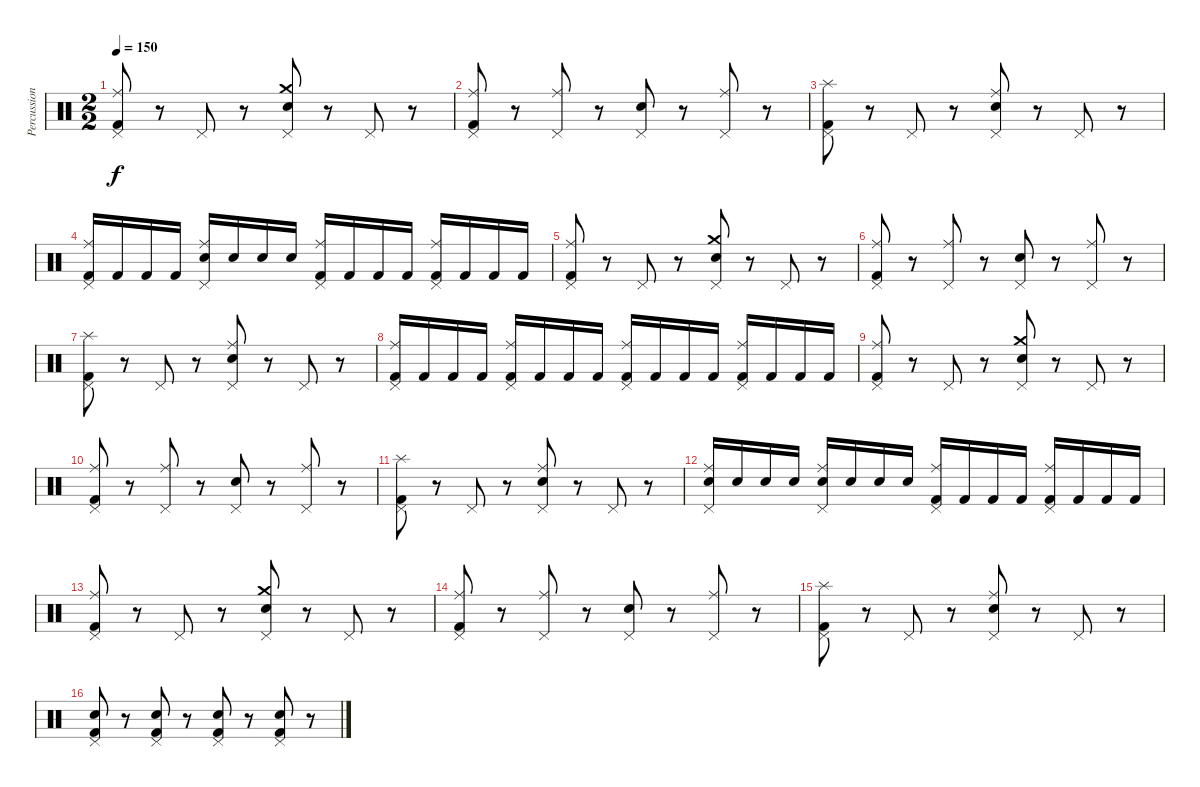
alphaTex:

\track ("Percussion" "Percussion") {instrument percussion}
\staff {score}
\articulation defaults
\ts (2 2)
\tempo 150
\clef neutral
\ks c
("Pedal Hi-Hat (hit)" "Ride (middle)" "Kick (hit) 2").8{dy f} r.8 "Pedal Hi-Hat (hit)".8 r.8 ("Pedal Hi-Hat (hit)" "Crash medium (hit)" "Snare (hit) 2").8 r.8 "Pedal Hi-Hat (hit)".8 r.8 |
("Pedal Hi-Hat (hit)" "Ride (middle)" "Kick (hit) 2").8 r.8 ("Pedal Hi-Hat (hit)" "Ride (middle)").8 r.8 ("Pedal Hi-Hat (hit)" "Snare (hit) 2").8 r.8 ("Pedal Hi-Hat (hit)" "Ride (middle)").8 r.8 |
("Pedal Hi-Hat (hit)" "Splash (hit)" "Kick (hit) 2").8 r.8 "Pedal Hi-Hat (hit)".8 r.8 ("Pedal Hi-Hat (hit)" "Ride (middle)" "Snare (hit) 2").8 r.8 "Pedal Hi-Hat (hit)".8 r.8 |
("Pedal Hi-Hat (hit)" "Ride (middle)" "Kick (hit) 2").16 "Kick (hit) 2".16 "Kick (hit) 2".16 "Kick (hit) 2".16 ("Pedal Hi-Hat (hit)" "Ride (middle)" "Snare (hit) 2").16 "Snare (hit) 2".16 "Snare (hit) 2".16 "Snare (hit) 2".16 ("Pedal Hi-Hat (hit)" "Ride (middle)" "Kick (hit) 2").16 "Kick (hit) 2".16 "Kick (hit) 2".16 "Kick (hit) 2".16 ("Pedal Hi-Hat (hit)" "Ride (middle)" "Kick (hit) 2").16 "Kick (hit) 2".16 "Kick (hit) 2".16 "Kick (hit) 2".16 |
("Pedal Hi-Hat (hit)" "Ride (middle)" "Kick (hit) 2").8 r.8 "Pedal Hi-Hat (hit)".8 r.8 ("Pedal Hi-Hat (hit)" "Crash medium (hit)" "Snare (hit) 2").8 r.8 "Pedal Hi-Hat (hit)".8 r.8 |
("Pedal Hi-Hat (hit)" "Ride (middle)" "Kick (hit) 2").8 r.8 ("Pedal Hi-Hat (hit)" "Ride (middle)").8 r.8 ("Pedal Hi-Hat (hit)" "Snare (hit) 2").8 r.8 ("Pedal Hi-Hat (hit)" "Ride (middle)").8 r.8 |
("Pedal Hi-Hat (hit)" "Splash (hit)" "Kick (hit) 2").8 r.8 "Pedal Hi-Hat (hit)".8 r.8 ("Pedal Hi-Hat (hit)" "Ride (middle)" "Snare (hit) 2").8 r.8 "Pedal Hi-Hat (hit)".8 r.8 |
("Pedal Hi-Hat (hit)" "Ride (middle)" "Kick (hit) 2").16 "Kick (hit) 2".16 "Kick (hit) 2".16 "Kick (hit) 2".16 ("Pedal Hi-Hat (hit)" "Ride (middle)" "Kick (hit) 2").16 "Kick (hit) 2".16 "Kick (hit) 2".16 "Kick (hit) 2".16 ("Pedal Hi-Hat (hit)" "Ride (middle)" "Kick (hit) 2").16 "Kick (hit) 2".16 "Kick (hit) 2".16 "Kick (hit) 2".16 ("Pedal Hi-Hat (hit)" "Ride (middle)" "Kick (hit) 2").16 "Kick (hit) 2".16 "Kick (hit) 2".16 "Kick (hit) 2".16 |
("Pedal Hi-Hat (hit)" "Ride (middle)" "Kick (hit) 2").8 r.8 "Pedal Hi-Hat (hit)".8 r.8 ("Pedal Hi-Hat (hit)" "Crash medium (hit)" "Snare (hit) 2").8 r.8 "Pedal Hi-Hat (hit)".8 r.8 |
("Pedal Hi-Hat (hit)" "Ride (middle)" "Kick (hit) 2").8 r.8 ("Pedal Hi-Hat (hit)" "Ride (middle)").8 r.8 ("Pedal Hi-Hat (hit)" "Snare (hit) 2").8 r.8 ("Pedal Hi-Hat (hit)" "Ride (middle)").8 r.8 |
("Pedal Hi-Hat (hit)" "Splash (hit)" "Kick (hit) 2").8 r.8 "Pedal Hi-Hat (hit)".8 r.8 ("Pedal Hi-Hat (hit)" "Ride (middle)" "Snare (hit) 2").8 r.8 "Pedal Hi-Hat (hit)".8 r.8 |
("Pedal Hi-Hat (hit)" "Ride (middle)" "Snare (hit) 2").16 "Snare (hit) 2".16 "Snare (hit) 2".16 "Snare (hit) 2".16 ("Pedal Hi-Hat (hit)" "Ride (middle)" "Snare (hit) 2").16 "Snare (hit) 2".16 "Snare (hit) 2".16 "Snare (hit) 2".16 ("Pedal Hi-Hat (hit)" "Ride (middle)" "Kick (hit) 2").16 "Kick (hit) 2".16 "Kick (hit) 2".16 "Kick (hit) 2".16 ("Pedal Hi-Hat (hit)" "Ride (middle)" "Kick (hit) 2").16 "Kick (hit) 2".16 "Kick (hit) 2".16 "Kick (hit) 2".16 |
("Pedal Hi-Hat (hit)" "Ride (middle)" "Kick (hit) 2").8 r.8 "Pedal Hi-Hat (hit)".8 r.8 ("Pedal Hi-Hat (hit)" "Crash medium (hit)" "Snare (hit) 2").8 r.8 "Pedal Hi-Hat (hit)".8 r.8 |
("Pedal Hi-Hat (hit)" "Ride (middle)" "Kick (hit) 2").8 r.8 ("Pedal Hi-Hat (hit)" "Ride (middle)").8 r.8 ("Pedal Hi-Hat (hit)" "Snare (hit) 2").8 r.8 ("Pedal Hi-Hat (hit)" "Ride (middle)").8 r.8 |
("Pedal Hi-Hat (hit)" "Splash (hit)" "Kick (hit) 2").8 r.8 "Pedal Hi-Hat (hit)".8 r.8 ("Pedal Hi-Hat (hit)" "Ride (middle)" "Snare (hit) 2").8 r.8 "Pedal Hi-Hat (hit)".8 r.8 |
("Pedal Hi-Hat (hit)" "Snare (hit) 2" "Kick (hit) 2").8 r.8 ("Pedal Hi-Hat (hit)" "Snare (hit) 2" "Kick (hit) 2").8 r.8 ("Pedal Hi-Hat (hit)" "Snare (hit) 2" "Kick (hit) 2").8 r.8 ("Pedal Hi-Hat (hit)" "Snare (hit) 2" "Kick (hit) 2").8 r.8
